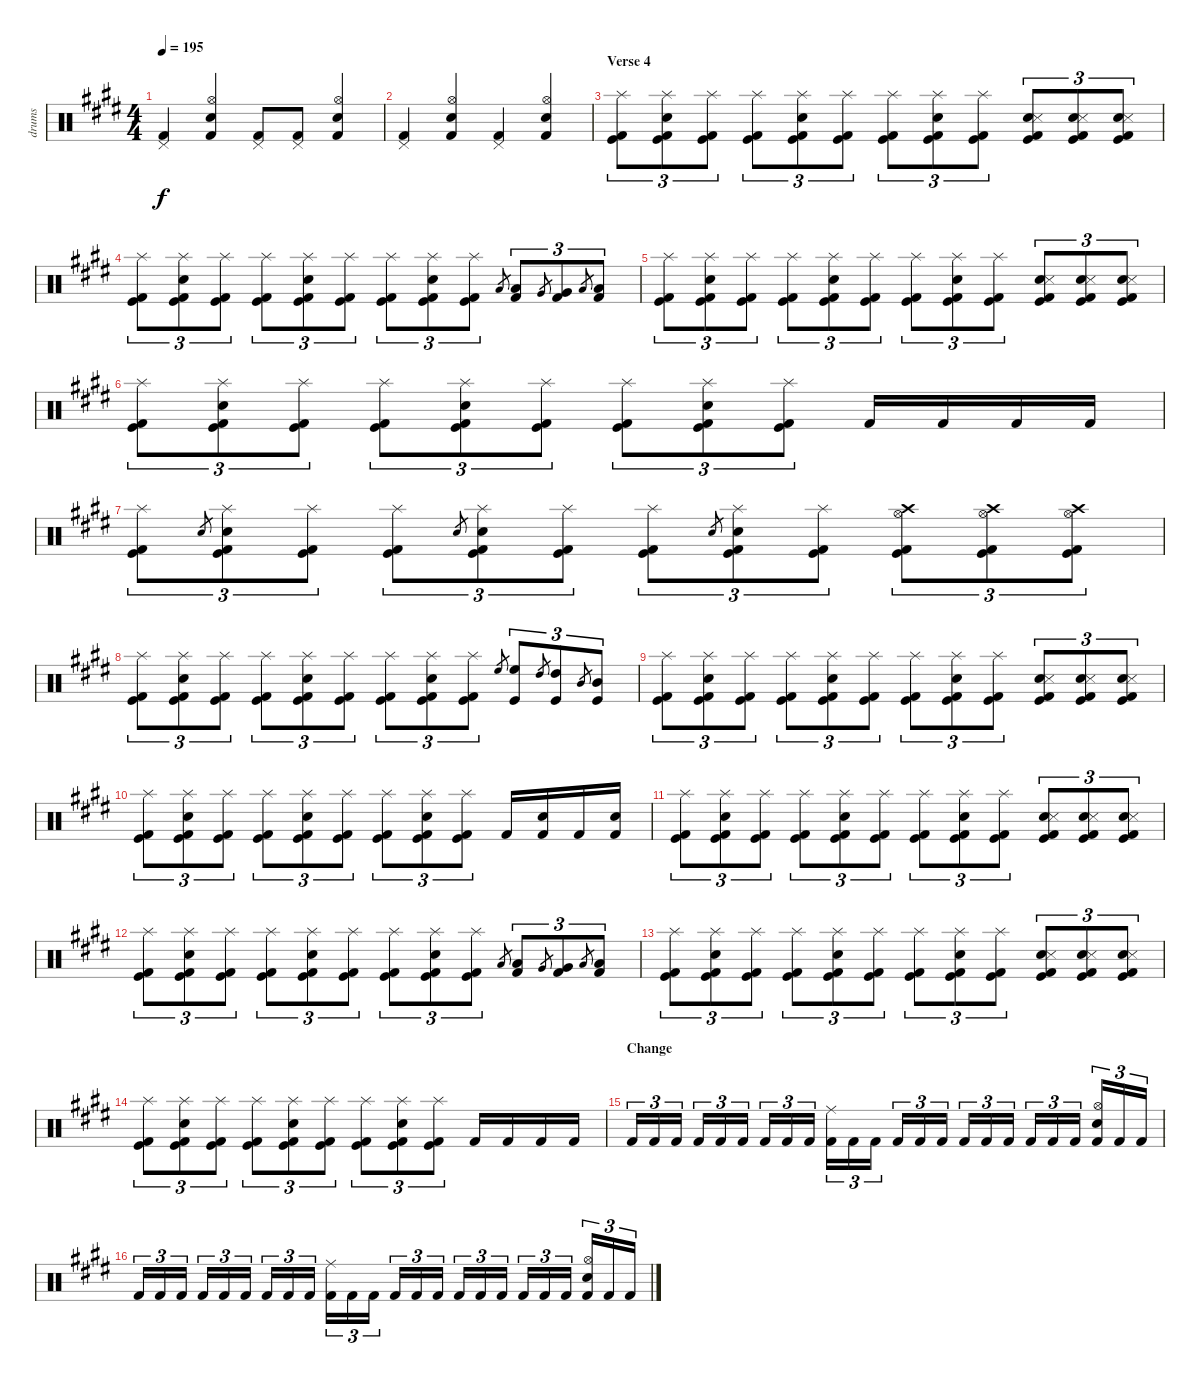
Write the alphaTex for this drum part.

\track ("drums" "drums") {instrument percussion}
\staff {score}
\articulation defaults
\ts (4 4)
\tempo 195
\clef neutral
\ks e
("Pedal Hi-Hat (hit)" "Kick (hit) 2").4{dy f} ("Hi-Hat (open)" "Electric Snare (hit)" "Kick (hit) 2").4 ("Pedal Hi-Hat (hit)" "Kick (hit) 2").8 ("Pedal Hi-Hat (hit)" "Kick (hit) 2").8 ("Hi-Hat (open)" "Electric Snare (hit)" "Kick (hit) 2").4 |
("Pedal Hi-Hat (hit)" "Kick (hit) 2").4 ("Hi-Hat (open)" "Electric Snare (hit)" "Kick (hit) 2").4 ("Pedal Hi-Hat (hit)" "Kick (hit) 2").4 ("Hi-Hat (open)" "Electric Snare (hit)" "Kick (hit) 2").4 |
\section ("" "Verse 4")
("Kick (hit) 2" "Kick (hit)" "Splash (hit)").8{tu (3 2)} ("Kick (hit) 2" "Kick (hit)" "Splash (hit)" "Snare (hit) 2").8{tu (3 2)} ("Kick (hit) 2" "Kick (hit)" "Splash (hit)").8{tu (3 2)} ("Kick (hit) 2" "Kick (hit)" "Splash (hit)").8{tu (3 2)} ("Kick (hit) 2" "Kick (hit)" "Splash (hit)" "Snare (hit) 2").8{tu (3 2)} ("Kick (hit) 2" "Kick (hit)" "Splash (hit)").8{tu (3 2)} ("Kick (hit) 2" "Kick (hit)" "Splash (hit)").8{tu (3 2)} ("Kick (hit) 2" "Kick (hit)" "Splash (hit)" "Snare (hit) 2").8{tu (3 2)} ("Kick (hit) 2" "Kick (hit)" "Splash (hit)").8{tu (3 2)} ("Kick (hit) 2" "Kick (hit)" "Electric Snare (hit)" "Snare (side stick) 3").8{tu (3 2)} ("Kick (hit) 2" "Kick (hit)" "Electric Snare (hit)" "Snare (side stick) 3").8{tu (3 2)} ("Kick (hit) 2" "Kick (hit)" "Electric Snare (hit)" "Snare (side stick) 3").8{tu (3 2)} |
("Kick (hit) 2" "Kick (hit)" "Splash (hit)").8{tu (3 2)} ("Kick (hit) 2" "Kick (hit)" "Splash (hit)" "Snare (hit) 2").8{tu (3 2)} ("Kick (hit) 2" "Kick (hit)" "Splash (hit)").8{tu (3 2)} ("Kick (hit) 2" "Kick (hit)" "Splash (hit)").8{tu (3 2)} ("Kick (hit) 2" "Kick (hit)" "Splash (hit)" "Snare (hit) 2").8{tu (3 2)} ("Kick (hit) 2" "Kick (hit)" "Splash (hit)").8{tu (3 2)} ("Kick (hit) 2" "Kick (hit)" "Splash (hit)").8{tu (3 2)} ("Kick (hit) 2" "Kick (hit)" "Splash (hit)" "Snare (hit) 2").8{tu (3 2)} ("Kick (hit) 2" "Kick (hit)" "Splash (hit)").8{tu (3 2)} "Low Tom (hit)".8{gr} ("Low Tom (hit)" "Kick (hit) 2").8{tu (3 2)} "Very Low Tom (hit)".8{gr} ("Very Low Tom (hit)" "Kick (hit) 2").8{tu (3 2)} "Low Floor Tom (hit)".8{gr} ("Low Floor Tom (hit)" "Kick (hit) 2").8{tu (3 2)} |
("Kick (hit) 2" "Kick (hit)" "Splash (hit)").8{tu (3 2)} ("Kick (hit) 2" "Kick (hit)" "Splash (hit)" "Snare (hit) 2").8{tu (3 2)} ("Kick (hit) 2" "Kick (hit)" "Splash (hit)").8{tu (3 2)} ("Kick (hit) 2" "Kick (hit)" "Splash (hit)").8{tu (3 2)} ("Kick (hit) 2" "Kick (hit)" "Splash (hit)" "Snare (hit) 2").8{tu (3 2)} ("Kick (hit) 2" "Kick (hit)" "Splash (hit)").8{tu (3 2)} ("Kick (hit) 2" "Kick (hit)" "Splash (hit)").8{tu (3 2)} ("Kick (hit) 2" "Kick (hit)" "Splash (hit)" "Snare (hit) 2").8{tu (3 2)} ("Kick (hit) 2" "Kick (hit)" "Splash (hit)").8{tu (3 2)} ("Kick (hit) 2" "Kick (hit)" "Electric Snare (hit)" "Snare (side stick) 3").8{tu (3 2)} ("Kick (hit) 2" "Kick (hit)" "Electric Snare (hit)" "Snare (side stick) 3").8{tu (3 2)} ("Kick (hit) 2" "Kick (hit)" "Electric Snare (hit)" "Snare (side stick) 3").8{tu (3 2)} |
("Kick (hit) 2" "Kick (hit)" "Splash (hit)").8{tu (3 2)} ("Kick (hit) 2" "Kick (hit)" "Splash (hit)" "Snare (hit) 2").8{tu (3 2)} ("Kick (hit) 2" "Kick (hit)" "Splash (hit)").8{tu (3 2)} ("Kick (hit) 2" "Kick (hit)" "Splash (hit)").8{tu (3 2)} ("Kick (hit) 2" "Kick (hit)" "Splash (hit)" "Snare (hit) 2").8{tu (3 2)} ("Kick (hit) 2" "Kick (hit)" "Splash (hit)").8{tu (3 2)} ("Kick (hit) 2" "Kick (hit)" "Splash (hit)").8{tu (3 2)} ("Kick (hit) 2" "Kick (hit)" "Splash (hit)" "Snare (hit) 2").8{tu (3 2)} ("Kick (hit) 2" "Kick (hit)" "Splash (hit)").8{tu (3 2)} "Kick (hit) 2".16 "Kick (hit) 2".16 "Kick (hit) 2".16 "Kick (hit) 2".16 |
("Kick (hit) 2" "Kick (hit)" "Splash (hit)").8{tu (3 2)} "Snare (hit) 2".8{gr} ("Kick (hit) 2" "Kick (hit)" "Splash (hit)" "Snare (hit) 2").8{tu (3 2)} ("Kick (hit) 2" "Kick (hit)" "Splash (hit)").8{tu (3 2)} ("Kick (hit) 2" "Kick (hit)" "Splash (hit)").8{tu (3 2)} "Snare (hit) 2".8{gr} ("Kick (hit) 2" "Kick (hit)" "Splash (hit)" "Snare (hit) 2").8{tu (3 2)} ("Kick (hit) 2" "Kick (hit)" "Splash (hit)").8{tu (3 2)} ("Kick (hit) 2" "Kick (hit)" "Splash (hit)").8{tu (3 2)} "Snare (hit) 2".8{gr} ("Kick (hit) 2" "Kick (hit)" "Splash (hit)" "Snare (hit) 2").8{tu (3 2)} ("Kick (hit) 2" "Kick (hit)" "Splash (hit)").8{tu (3 2)} ("Kick (hit) 2" "Kick (hit)" "Crash high (hit)" "Hi-Hat (open)").8{tu (3 2)} ("Kick (hit) 2" "Kick (hit)" "Crash high (hit)" "Hi-Hat (open)").8{tu (3 2)} ("Kick (hit) 2" "Kick (hit)" "Crash high (hit)" "Hi-Hat (open)").8{tu (3 2)} |
("Kick (hit) 2" "Kick (hit)" "Splash (hit)").8{tu (3 2)} ("Kick (hit) 2" "Kick (hit)" "Splash (hit)" "Snare (hit) 2").8{tu (3 2)} ("Kick (hit) 2" "Kick (hit)" "Splash (hit)").8{tu (3 2)} ("Kick (hit) 2" "Kick (hit)" "Splash (hit)").8{tu (3 2)} ("Kick (hit) 2" "Kick (hit)" "Splash (hit)" "Snare (hit) 2").8{tu (3 2)} ("Kick (hit) 2" "Kick (hit)" "Splash (hit)").8{tu (3 2)} ("Kick (hit) 2" "Kick (hit)" "Splash (hit)").8{tu (3 2)} ("Kick (hit) 2" "Kick (hit)" "Splash (hit)" "Snare (hit) 2").8{tu (3 2)} ("Kick (hit) 2" "Kick (hit)" "Splash (hit)").8{tu (3 2)} "High Floor Tom (hit)".8{gr} ("High Floor Tom (hit)" "Kick (hit)").8{tu (3 2)} "High Tom (hit)".8{gr} ("High Tom (hit)" "Kick (hit)").8{tu (3 2)} "Mid Tom (hit)".8{gr} ("Mid Tom (hit)" "Kick (hit)").8{tu (3 2)} |
("Kick (hit) 2" "Kick (hit)" "Splash (hit)").8{tu (3 2)} ("Kick (hit) 2" "Kick (hit)" "Splash (hit)" "Snare (hit) 2").8{tu (3 2)} ("Kick (hit) 2" "Kick (hit)" "Splash (hit)").8{tu (3 2)} ("Kick (hit) 2" "Kick (hit)" "Splash (hit)").8{tu (3 2)} ("Kick (hit) 2" "Kick (hit)" "Splash (hit)" "Snare (hit) 2").8{tu (3 2)} ("Kick (hit) 2" "Kick (hit)" "Splash (hit)").8{tu (3 2)} ("Kick (hit) 2" "Kick (hit)" "Splash (hit)").8{tu (3 2)} ("Kick (hit) 2" "Kick (hit)" "Splash (hit)" "Snare (hit) 2").8{tu (3 2)} ("Kick (hit) 2" "Kick (hit)" "Splash (hit)").8{tu (3 2)} ("Kick (hit) 2" "Kick (hit)" "Electric Snare (hit)" "Snare (side stick) 3").8{tu (3 2)} ("Kick (hit) 2" "Kick (hit)" "Electric Snare (hit)" "Snare (side stick) 3").8{tu (3 2)} ("Kick (hit) 2" "Kick (hit)" "Electric Snare (hit)" "Snare (side stick) 3").8{tu (3 2)} |
("Kick (hit) 2" "Kick (hit)" "Splash (hit)").8{tu (3 2)} ("Kick (hit) 2" "Kick (hit)" "Splash (hit)" "Snare (hit) 2").8{tu (3 2)} ("Kick (hit) 2" "Kick (hit)" "Splash (hit)").8{tu (3 2)} ("Kick (hit) 2" "Kick (hit)" "Splash (hit)").8{tu (3 2)} ("Kick (hit) 2" "Kick (hit)" "Splash (hit)" "Snare (hit) 2").8{tu (3 2)} ("Kick (hit) 2" "Kick (hit)" "Splash (hit)").8{tu (3 2)} ("Kick (hit) 2" "Kick (hit)" "Splash (hit)").8{tu (3 2)} ("Kick (hit) 2" "Kick (hit)" "Splash (hit)" "Snare (hit) 2").8{tu (3 2)} ("Kick (hit) 2" "Kick (hit)" "Splash (hit)").8{tu (3 2)} "Kick (hit) 2".16 ("Snare (hit) 2" "Kick (hit) 2").16 "Kick (hit) 2".16 ("Snare (hit) 2" "Kick (hit) 2").16 |
("Kick (hit) 2" "Kick (hit)" "Splash (hit)").8{tu (3 2)} ("Kick (hit) 2" "Kick (hit)" "Splash (hit)" "Snare (hit) 2").8{tu (3 2)} ("Kick (hit) 2" "Kick (hit)" "Splash (hit)").8{tu (3 2)} ("Kick (hit) 2" "Kick (hit)" "Splash (hit)").8{tu (3 2)} ("Kick (hit) 2" "Kick (hit)" "Splash (hit)" "Snare (hit) 2").8{tu (3 2)} ("Kick (hit) 2" "Kick (hit)" "Splash (hit)").8{tu (3 2)} ("Kick (hit) 2" "Kick (hit)" "Splash (hit)").8{tu (3 2)} ("Kick (hit) 2" "Kick (hit)" "Splash (hit)" "Snare (hit) 2").8{tu (3 2)} ("Kick (hit) 2" "Kick (hit)" "Splash (hit)").8{tu (3 2)} ("Kick (hit) 2" "Kick (hit)" "Electric Snare (hit)" "Snare (side stick) 3").8{tu (3 2)} ("Kick (hit) 2" "Kick (hit)" "Electric Snare (hit)" "Snare (side stick) 3").8{tu (3 2)} ("Kick (hit) 2" "Kick (hit)" "Electric Snare (hit)" "Snare (side stick) 3").8{tu (3 2)} |
("Kick (hit) 2" "Kick (hit)" "Splash (hit)").8{tu (3 2)} ("Kick (hit) 2" "Kick (hit)" "Splash (hit)" "Snare (hit) 2").8{tu (3 2)} ("Kick (hit) 2" "Kick (hit)" "Splash (hit)").8{tu (3 2)} ("Kick (hit) 2" "Kick (hit)" "Splash (hit)").8{tu (3 2)} ("Kick (hit) 2" "Kick (hit)" "Splash (hit)" "Snare (hit) 2").8{tu (3 2)} ("Kick (hit) 2" "Kick (hit)" "Splash (hit)").8{tu (3 2)} ("Kick (hit) 2" "Kick (hit)" "Splash (hit)").8{tu (3 2)} ("Kick (hit) 2" "Kick (hit)" "Splash (hit)" "Snare (hit) 2").8{tu (3 2)} ("Kick (hit) 2" "Kick (hit)" "Splash (hit)").8{tu (3 2)} "Low Tom (hit)".8{gr} ("Low Tom (hit)" "Kick (hit) 2").8{tu (3 2)} "Very Low Tom (hit)".8{gr} ("Very Low Tom (hit)" "Kick (hit) 2").8{tu (3 2)} "Low Floor Tom (hit)".8{gr} ("Low Floor Tom (hit)" "Kick (hit) 2").8{tu (3 2)} |
("Kick (hit) 2" "Kick (hit)" "Splash (hit)").8{tu (3 2)} ("Kick (hit) 2" "Kick (hit)" "Splash (hit)" "Snare (hit) 2").8{tu (3 2)} ("Kick (hit) 2" "Kick (hit)" "Splash (hit)").8{tu (3 2)} ("Kick (hit) 2" "Kick (hit)" "Splash (hit)").8{tu (3 2)} ("Kick (hit) 2" "Kick (hit)" "Splash (hit)" "Snare (hit) 2").8{tu (3 2)} ("Kick (hit) 2" "Kick (hit)" "Splash (hit)").8{tu (3 2)} ("Kick (hit) 2" "Kick (hit)" "Splash (hit)").8{tu (3 2)} ("Kick (hit) 2" "Kick (hit)" "Splash (hit)" "Snare (hit) 2").8{tu (3 2)} ("Kick (hit) 2" "Kick (hit)" "Splash (hit)").8{tu (3 2)} ("Kick (hit) 2" "Kick (hit)" "Electric Snare (hit)" "Snare (side stick) 3").8{tu (3 2)} ("Kick (hit) 2" "Kick (hit)" "Electric Snare (hit)" "Snare (side stick) 3").8{tu (3 2)} ("Kick (hit) 2" "Kick (hit)" "Electric Snare (hit)" "Snare (side stick) 3").8{tu (3 2)} |
("Kick (hit) 2" "Kick (hit)" "Splash (hit)").8{tu (3 2)} ("Kick (hit) 2" "Kick (hit)" "Splash (hit)" "Snare (hit) 2").8{tu (3 2)} ("Kick (hit) 2" "Kick (hit)" "Splash (hit)").8{tu (3 2)} ("Kick (hit) 2" "Kick (hit)" "Splash (hit)").8{tu (3 2)} ("Kick (hit) 2" "Kick (hit)" "Splash (hit)" "Snare (hit) 2").8{tu (3 2)} ("Kick (hit) 2" "Kick (hit)" "Splash (hit)").8{tu (3 2)} ("Kick (hit) 2" "Kick (hit)" "Splash (hit)").8{tu (3 2)} ("Kick (hit) 2" "Kick (hit)" "Splash (hit)" "Snare (hit) 2").8{tu (3 2)} ("Kick (hit) 2" "Kick (hit)" "Splash (hit)").8{tu (3 2)} "Kick (hit) 2".16 "Kick (hit) 2".16 "Kick (hit) 2".16 "Kick (hit) 2".16 |
\section ("" "Change")
"Kick (hit) 2".16{tu (3 2)} "Kick (hit) 2".16{tu (3 2)} "Kick (hit) 2".16{tu (3 2)} "Kick (hit) 2".16{tu (3 2)} "Kick (hit) 2".16{tu (3 2)} "Kick (hit) 2".16{tu (3 2)} "Kick (hit) 2".16{tu (3 2)} "Kick (hit) 2".16{tu (3 2)} "Kick (hit) 2".16{tu (3 2)} ("Kick (hit) 2" "Ride (middle)").16{tu (3 2)} "Kick (hit) 2".16{tu (3 2)} "Kick (hit) 2".16{tu (3 2)} "Kick (hit) 2".16{tu (3 2)} "Kick (hit) 2".16{tu (3 2)} "Kick (hit) 2".16{tu (3 2)} "Kick (hit) 2".16{tu (3 2)} "Kick (hit) 2".16{tu (3 2)} "Kick (hit) 2".16{tu (3 2)} "Kick (hit) 2".16{tu (3 2)} "Kick (hit) 2".16{tu (3 2)} "Kick (hit) 2".16{tu (3 2)} ("Kick (hit) 2" "Electric Snare (hit)" "Hi-Hat (open)").16{tu (3 2)} "Kick (hit) 2".16{tu (3 2)} "Kick (hit) 2".16{tu (3 2)} |
"Kick (hit) 2".16{tu (3 2)} "Kick (hit) 2".16{tu (3 2)} "Kick (hit) 2".16{tu (3 2)} "Kick (hit) 2".16{tu (3 2)} "Kick (hit) 2".16{tu (3 2)} "Kick (hit) 2".16{tu (3 2)} "Kick (hit) 2".16{tu (3 2)} "Kick (hit) 2".16{tu (3 2)} "Kick (hit) 2".16{tu (3 2)} ("Kick (hit) 2" "Ride (middle)").16{tu (3 2)} "Kick (hit) 2".16{tu (3 2)} "Kick (hit) 2".16{tu (3 2)} "Kick (hit) 2".16{tu (3 2)} "Kick (hit) 2".16{tu (3 2)} "Kick (hit) 2".16{tu (3 2)} "Kick (hit) 2".16{tu (3 2)} "Kick (hit) 2".16{tu (3 2)} "Kick (hit) 2".16{tu (3 2)} "Kick (hit) 2".16{tu (3 2)} "Kick (hit) 2".16{tu (3 2)} "Kick (hit) 2".16{tu (3 2)} ("Kick (hit) 2" "Electric Snare (hit)" "Hi-Hat (open)").16{tu (3 2)} "Kick (hit) 2".16{tu (3 2)} "Kick (hit) 2".16{tu (3 2)}
